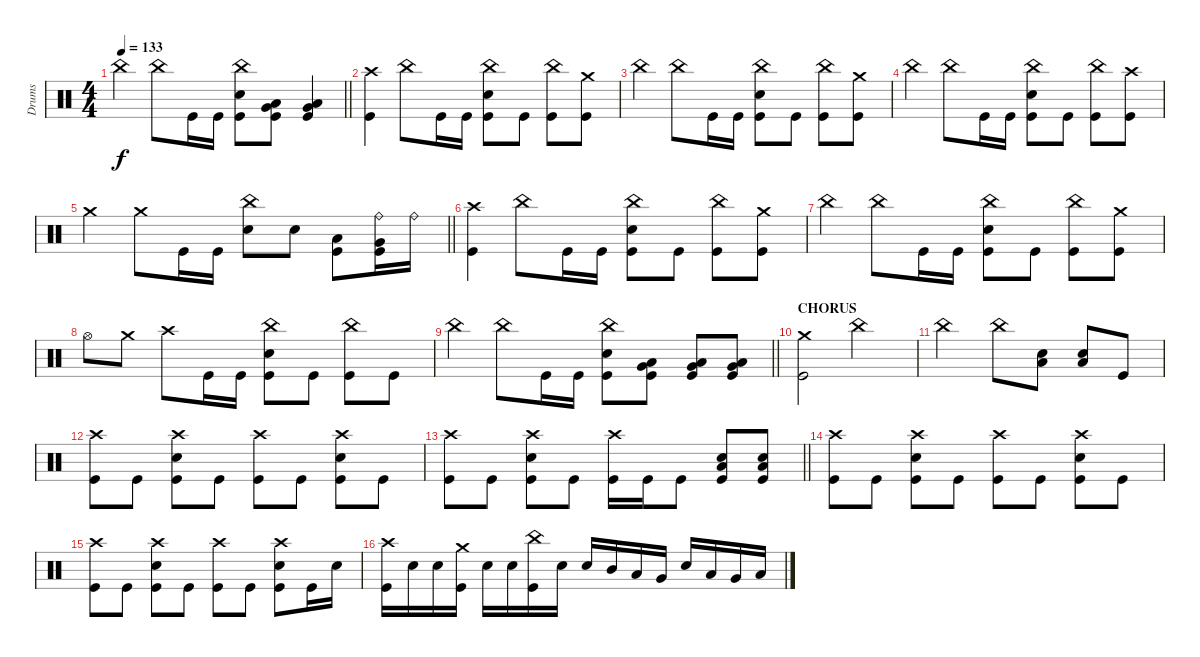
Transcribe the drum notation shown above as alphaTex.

\track ("Drums" "Drums") {instrument percussion}
\staff
\articulation defaults
\ts (4 4)
\tempo 133
\clef neutral
\barLineRight lightlight
\ks c "China (hit)".4{dy f} "China (hit)".8 "Kick (hit)".16 "Kick (hit)".16
("China (hit)" "Electric Snare (hit)" "Kick (hit)").8 ("Very Low Tom (hit)" "Low Floor Tom (hit)" "Kick (hit)").8 ("Very Low Tom (hit)" "Low Floor Tom (hit)" "Kick (hit)").4 |
("Crash high (hit)" "Kick (hit)").4 "China (hit)".8 "Kick (hit)".16 "Kick (hit)".16 ("China (hit)" "Electric Snare (hit)" "Kick (hit)").8 "Kick (hit)".8 ("China (hit)" "Kick (hit)").8 ("Crash medium (hit)" "Kick (hit)").8 |
"China (hit)".4 "China (hit)".8 "Kick (hit)".16 "Kick (hit)".16 ("China (hit)" "Electric Snare (hit)" "Kick (hit)").8 "Kick (hit)".8 ("China (hit)" "Kick (hit)").8 ("Crash medium (hit)" "Kick (hit)").8 |
"China (hit)".4 "China (hit)".8 "Kick (hit)".16 "Kick (hit)".16 ("China (hit)" "Electric Snare (hit)" "Kick (hit)").8 "Kick (hit)".8 ("China (hit)" "Kick (hit)").8 ("Crash high (hit)" "Kick (hit)").8 |
\barLineRight lightlight "Crash medium (hit)".4 "Crash medium (hit)".8 "Kick (hit)".16 "Kick (hit)".16
("China (hit)" "Electric Snare (hit)").8 "Electric Snare (hit)".8 ("Low Tom (hit)" "Kick (hit)").8 ("Ride (bell)" "Very Low Tom (hit)" "Kick (hit)").16 "Ride (bell)".16 |
("Crash high (hit)" "Kick (hit)").4 "China (hit)".8 "Kick (hit)".16 "Kick (hit)".16 ("China (hit)" "Electric Snare (hit)" "Kick (hit)").8 "Kick (hit)".8 ("China (hit)" "Kick (hit)").8 ("Crash medium (hit)" "Kick (hit)").8 |
"China (hit)".4 "China (hit)".8 "Kick (hit)".16 "Kick (hit)".16 ("China (hit)" "Electric Snare (hit)" "Kick (hit)").8 "Kick (hit)".8 ("China (hit)" "Kick (hit)").8 ("Crash medium (hit)" "Kick (hit)").8 |
"Hi-Hat (open)".8 "Crash medium (hit)".8 "Crash high (hit)".8 "Kick (hit)".16 "Kick (hit)".16 ("China (hit)" "Electric Snare (hit)" "Kick (hit)").8 "Kick (hit)".8 ("China (hit)" "Kick (hit)").8 "Kick (hit)".8 |
\barLineRight lightlight "China (hit)".4 "China (hit)".8 "Kick (hit)".16 "Kick (hit)".16
("China (hit)" "Electric Snare (hit)" "Kick (hit)").8 ("Very Low Tom (hit)" "Low Floor Tom (hit)" "Kick (hit)").8 ("Very Low Tom (hit)" "Low Floor Tom (hit)" "Kick (hit)").8 ("Very Low Tom (hit)" "Low Floor Tom (hit)" "Kick (hit)").8 |
\section ("" "CHORUS")
("Crash medium (hit)" "Kick (hit)").2 "China (hit)".2 |
"China (hit)".2 "China (hit)".8 ("Low Floor Tom (hit)" "Electric Snare (hit)").8 ("Low Floor Tom (hit)" "Electric Snare (hit)").8 "Kick (hit)".8 |
("Crash high (hit)" "Kick (hit)").8 "Kick (hit)".8 ("Crash high (hit)" "Electric Snare (hit)" "Kick (hit)").8 "Kick (hit)".8 ("Crash high (hit)" "Kick (hit)").8 "Kick (hit)".8 ("Crash high (hit)" "Electric Snare (hit)" "Kick (hit)").8 "Kick (hit)".8 |
\barLineRight lightlight
("Crash high (hit)" "Kick (hit)").8 "Kick (hit)".8 ("Crash high (hit)" "Electric Snare (hit)" "Kick (hit)").8 "Kick (hit)".8 ("Crash high (hit)" "Kick (hit)").16 "Kick (hit)".16 "Kick (hit)".8 ("Low Floor Tom (hit)" "Electric Snare (hit)" "Kick (hit)").8 ("Low Floor Tom (hit)" "Electric Snare (hit)" "Kick (hit)").8 |
("Crash high (hit)" "Kick (hit)").8 "Kick (hit)".8 ("Crash high (hit)" "Electric Snare (hit)" "Kick (hit)").8 "Kick (hit)".8 ("Crash high (hit)" "Kick (hit)").8 "Kick (hit)".8 ("Crash high (hit)" "Electric Snare (hit)" "Kick (hit)").8 "Kick (hit)".8 |
("Crash high (hit)" "Kick (hit)").8 "Kick (hit)".8 ("Crash high (hit)" "Electric Snare (hit)" "Kick (hit)").8 "Kick (hit)".8 ("Crash high (hit)" "Kick (hit)").8 "Kick (hit)".8 ("Crash high (hit)" "Electric Snare (hit)" "Kick (hit)").8 "Kick (hit)".16 "Electric Snare (hit)".16 |
("Crash high (hit)" "Kick (hit)").16 "Electric Snare (hit)".16 "Electric Snare (hit)".16 ("Crash medium (hit)" "Kick (hit)").16 "Electric Snare (hit)".16 "Electric Snare (hit)".16 ("China (hit)" "Kick (hit)").16 "Electric Snare (hit)".16 "Electric Snare (hit)".16 "Mid Tom (hit)".16 "Low Tom (hit)".16 "Very Low Tom (hit)".16 "Electric Snare (hit)".16 "Low Tom (hit)".16 "Very Low Tom (hit)".16 "Low Floor Tom (hit)".16
